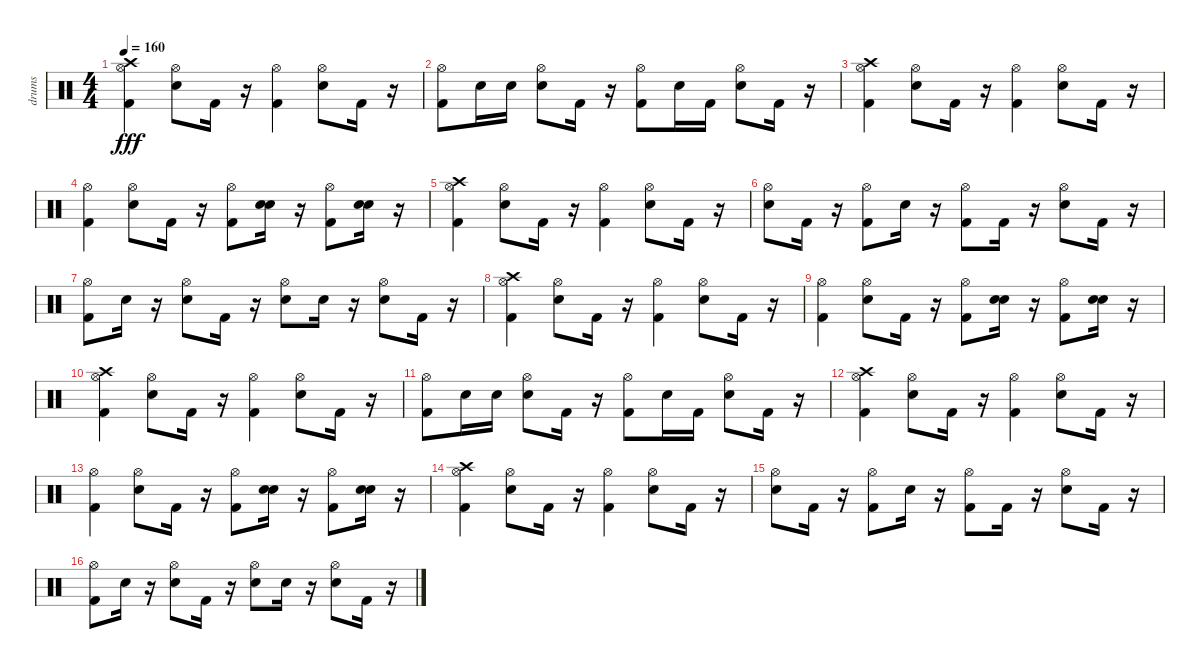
\track ("drums" "drums") {instrument percussion}
\staff {score}
\articulation defaults
\ts (4 4)
\tempo 160
\clef neutral
\ks c
("Hi-Hat (open)" "Crash high (hit)" "Kick (hit) 2").4{dy fff} ("Electric Snare (hit)" "Hi-Hat (open)").8 "Kick (hit) 2".16 r.16 ("Kick (hit) 2" "Hi-Hat (open)").4 ("Electric Snare (hit)" "Hi-Hat (open)").8 "Kick (hit) 2".16 r.16 |
("Hi-Hat (open)" "Kick (hit) 2").8 "Electric Snare (hit)".16 "Electric Snare (hit)".16 ("Hi-Hat (open)" "Electric Snare (hit)").8 "Kick (hit) 2".16 r.16 ("Hi-Hat (open)" "Kick (hit) 2").8 "Electric Snare (hit)".16 "Kick (hit) 2".16 ("Hi-Hat (open)" "Snare (hit) 2").8 "Kick (hit) 2".16 r.16 |
("Hi-Hat (open)" "Crash high (hit)" "Kick (hit) 2").4 ("Electric Snare (hit)" "Hi-Hat (open)").8 "Kick (hit) 2".16 r.16 ("Kick (hit) 2" "Hi-Hat (open)").4 ("Electric Snare (hit)" "Hi-Hat (open)").8 "Kick (hit) 2".16 r.16 |
("Kick (hit) 2" "Hi-Hat (open)").4 ("Electric Snare (hit)" "Hi-Hat (open)").8 "Kick (hit) 2".16 r.16 ("Kick (hit) 2" "Hi-Hat (open)").8 ("Electric Snare (hit)" "Snare (hit) 2").16 r.16 ("Kick (hit) 2" "Hi-Hat (open)").8 ("Electric Snare (hit)" "Snare (hit) 2").16 r.16 |
("Hi-Hat (open)" "Crash high (hit)" "Kick (hit) 2").4 ("Electric Snare (hit)" "Hi-Hat (open)").8 "Kick (hit) 2".16 r.16 ("Kick (hit) 2" "Hi-Hat (open)").4 ("Electric Snare (hit)" "Hi-Hat (open)").8 "Kick (hit) 2".16 r.16 |
("Hi-Hat (open)" "Electric Snare (hit)").8 "Kick (hit) 2".16 r.16 ("Hi-Hat (open)" "Kick (hit) 2").8 "Electric Snare (hit)".16 r.16 ("Hi-Hat (open)" "Kick (hit) 2").8 "Kick (hit) 2".16 r.16 ("Hi-Hat (open)" "Electric Snare (hit)").8 "Kick (hit) 2".16 r.16 |
("Hi-Hat (open)" "Kick (hit) 2").8 "Electric Snare (hit)".16 r.16 ("Hi-Hat (open)" "Electric Snare (hit)").8 "Kick (hit) 2".16 r.16 ("Hi-Hat (open)" "Electric Snare (hit)").8 "Electric Snare (hit)".16 r.16 ("Hi-Hat (open)" "Electric Snare (hit)").8 "Kick (hit) 2".16 r.16 |
("Kick (hit) 2" "Crash high (hit)" "Hi-Hat (open)").4 ("Electric Snare (hit)" "Hi-Hat (open)").8 "Kick (hit) 2".16 r.16 ("Kick (hit) 2" "Hi-Hat (open)").4 ("Electric Snare (hit)" "Hi-Hat (open)").8 "Kick (hit) 2".16 r.16 |
("Kick (hit) 2" "Hi-Hat (open)").4 ("Electric Snare (hit)" "Hi-Hat (open)").8 "Kick (hit) 2".16 r.16 ("Kick (hit) 2" "Hi-Hat (open)").8 ("Electric Snare (hit)" "Snare (hit) 2").16 r.16 ("Kick (hit) 2" "Hi-Hat (open)").8 ("Electric Snare (hit)" "Snare (hit) 2").16 r.16 |
("Hi-Hat (open)" "Crash high (hit)" "Kick (hit) 2").4 ("Electric Snare (hit)" "Hi-Hat (open)").8 "Kick (hit) 2".16 r.16 ("Kick (hit) 2" "Hi-Hat (open)").4 ("Electric Snare (hit)" "Hi-Hat (open)").8 "Kick (hit) 2".16 r.16 |
("Hi-Hat (open)" "Kick (hit) 2").8 "Electric Snare (hit)".16 "Electric Snare (hit)".16 ("Hi-Hat (open)" "Electric Snare (hit)").8 "Kick (hit) 2".16 r.16 ("Hi-Hat (open)" "Kick (hit) 2").8 "Electric Snare (hit)".16 "Kick (hit) 2".16 ("Hi-Hat (open)" "Snare (hit) 2").8 "Kick (hit) 2".16 r.16 |
("Hi-Hat (open)" "Crash high (hit)" "Kick (hit) 2").4 ("Electric Snare (hit)" "Hi-Hat (open)").8 "Kick (hit) 2".16 r.16 ("Kick (hit) 2" "Hi-Hat (open)").4 ("Electric Snare (hit)" "Hi-Hat (open)").8 "Kick (hit) 2".16 r.16 |
("Kick (hit) 2" "Hi-Hat (open)").4 ("Electric Snare (hit)" "Hi-Hat (open)").8 "Kick (hit) 2".16 r.16 ("Kick (hit) 2" "Hi-Hat (open)").8 ("Electric Snare (hit)" "Snare (hit) 2").16 r.16 ("Kick (hit) 2" "Hi-Hat (open)").8 ("Electric Snare (hit)" "Snare (hit) 2").16 r.16 |
("Hi-Hat (open)" "Crash high (hit)" "Kick (hit) 2").4 ("Electric Snare (hit)" "Hi-Hat (open)").8 "Kick (hit) 2".16 r.16 ("Kick (hit) 2" "Hi-Hat (open)").4 ("Electric Snare (hit)" "Hi-Hat (open)").8 "Kick (hit) 2".16 r.16 |
("Hi-Hat (open)" "Electric Snare (hit)").8 "Kick (hit) 2".16 r.16 ("Hi-Hat (open)" "Kick (hit) 2").8 "Electric Snare (hit)".16 r.16 ("Hi-Hat (open)" "Kick (hit) 2").8 "Kick (hit) 2".16 r.16 ("Hi-Hat (open)" "Electric Snare (hit)").8 "Kick (hit) 2".16 r.16 |
("Hi-Hat (open)" "Kick (hit) 2").8 "Electric Snare (hit)".16 r.16 ("Hi-Hat (open)" "Electric Snare (hit)").8 "Kick (hit) 2".16 r.16 ("Hi-Hat (open)" "Electric Snare (hit)").8 "Electric Snare (hit)".16 r.16 ("Hi-Hat (open)" "Electric Snare (hit)").8 "Kick (hit) 2".16 r.16
